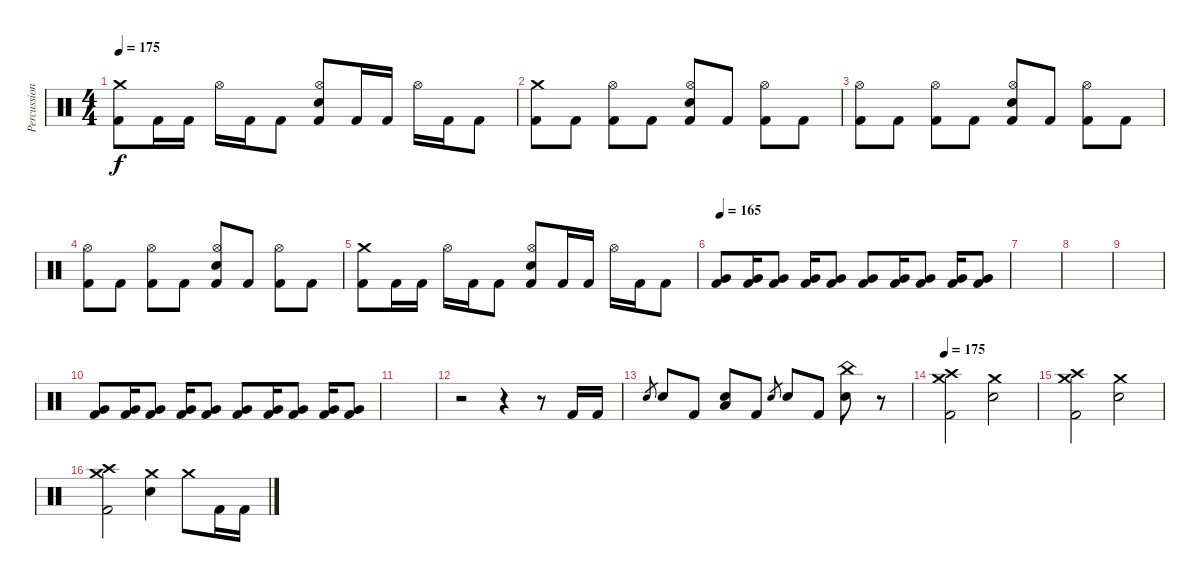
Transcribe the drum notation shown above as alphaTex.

\track ("Percussion" "Percussion") {instrument percussion}
\staff {score}
\articulation defaults
\ts (4 4)
\tempo 175
\clef neutral
\ks c
("Kick (hit) 2" "Crash medium (hit)").8{dy f} "Kick (hit) 2".16 "Kick (hit) 2".16 "Hi-Hat (open)".16 "Kick (hit) 2".16 "Kick (hit) 2".8 ("Kick (hit) 2" "Electric Snare (hit)" "Hi-Hat (open)").8 "Kick (hit) 2".16 "Kick (hit) 2".16 "Hi-Hat (open)".16 "Kick (hit) 2".16 "Kick (hit) 2".8 |
("Kick (hit) 2" "Crash medium (hit)").8 "Kick (hit) 2".8 ("Kick (hit) 2" "Hi-Hat (open)").8 "Kick (hit) 2".8 ("Kick (hit) 2" "Electric Snare (hit)" "Hi-Hat (open)").8 "Kick (hit) 2".8 ("Kick (hit) 2" "Hi-Hat (open)").8 "Kick (hit) 2".8 |
("Kick (hit) 2" "Hi-Hat (open)").8 "Kick (hit) 2".8 ("Kick (hit) 2" "Hi-Hat (open)").8 "Kick (hit) 2".8 ("Kick (hit) 2" "Electric Snare (hit)" "Hi-Hat (open)").8 "Kick (hit) 2".8 ("Kick (hit) 2" "Hi-Hat (open)").8 "Kick (hit) 2".8 |
("Kick (hit) 2" "Hi-Hat (open)").8 "Kick (hit) 2".8 ("Kick (hit) 2" "Hi-Hat (open)").8 "Kick (hit) 2".8 ("Kick (hit) 2" "Electric Snare (hit)" "Hi-Hat (open)").8 "Kick (hit) 2".8 ("Kick (hit) 2" "Hi-Hat (open)").8 "Kick (hit) 2".8 |
("Kick (hit) 2" "Crash medium (hit)").8 "Kick (hit) 2".16 "Kick (hit) 2".16 "Hi-Hat (open)".16 "Kick (hit) 2".16 "Kick (hit) 2".8 ("Kick (hit) 2" "Electric Snare (hit)" "Hi-Hat (open)").8 "Kick (hit) 2".16 "Kick (hit) 2".16 "Hi-Hat (open)".16 "Kick (hit) 2".16 "Kick (hit) 2".8 |
\tempo 165
("Kick (hit) 2" "Very Low Tom (hit)").8 ("Kick (hit) 2" "Very Low Tom (hit)").16 ("Kick (hit) 2" "Very Low Tom (hit)").8 ("Kick (hit) 2" "Very Low Tom (hit)").16 ("Kick (hit) 2" "Very Low Tom (hit)").8 ("Kick (hit) 2" "Very Low Tom (hit)").8 ("Kick (hit) 2" "Very Low Tom (hit)").16 ("Kick (hit) 2" "Very Low Tom (hit)").8 ("Kick (hit) 2" "Very Low Tom (hit)").16 ("Kick (hit) 2" "Very Low Tom (hit)").8 |
|
|
|
("Kick (hit) 2" "Very Low Tom (hit)").8 ("Kick (hit) 2" "Very Low Tom (hit)").16 ("Kick (hit) 2" "Very Low Tom (hit)").8 ("Kick (hit) 2" "Very Low Tom (hit)").16 ("Kick (hit) 2" "Very Low Tom (hit)").8 ("Kick (hit) 2" "Very Low Tom (hit)").8 ("Kick (hit) 2" "Very Low Tom (hit)").16 ("Kick (hit) 2" "Very Low Tom (hit)").8 ("Kick (hit) 2" "Very Low Tom (hit)").16 ("Kick (hit) 2" "Very Low Tom (hit)").8 |
|
r.2 r.4 r.8 "Kick (hit) 2".16 "Kick (hit) 2".16 |
"Electric Snare (hit)".8{gr} "Electric Snare (hit)".8 "Kick (hit) 2".8 ("Electric Snare (hit)" "Low Tom (hit)").8 "Kick (hit) 2".8 "Electric Snare (hit)".8{gr} "Electric Snare (hit)".8 "Kick (hit) 2".8 ("Electric Snare (hit)" "China (hit)").8 r.8 |
\tempo 175
("Kick (hit) 2" "Crash medium (hit)" "Crash high (hit)").2 ("Electric Snare (hit)" "Crash medium (hit)").2 |
("Kick (hit) 2" "Crash medium (hit)" "Crash high (hit)").2 ("Electric Snare (hit)" "Crash medium (hit)").2 |
("Kick (hit) 2" "Crash medium (hit)" "Crash high (hit)").2 ("Electric Snare (hit)" "Crash medium (hit)").4 "Crash medium (hit)".8 "Kick (hit) 2".16 "Kick (hit) 2".16
